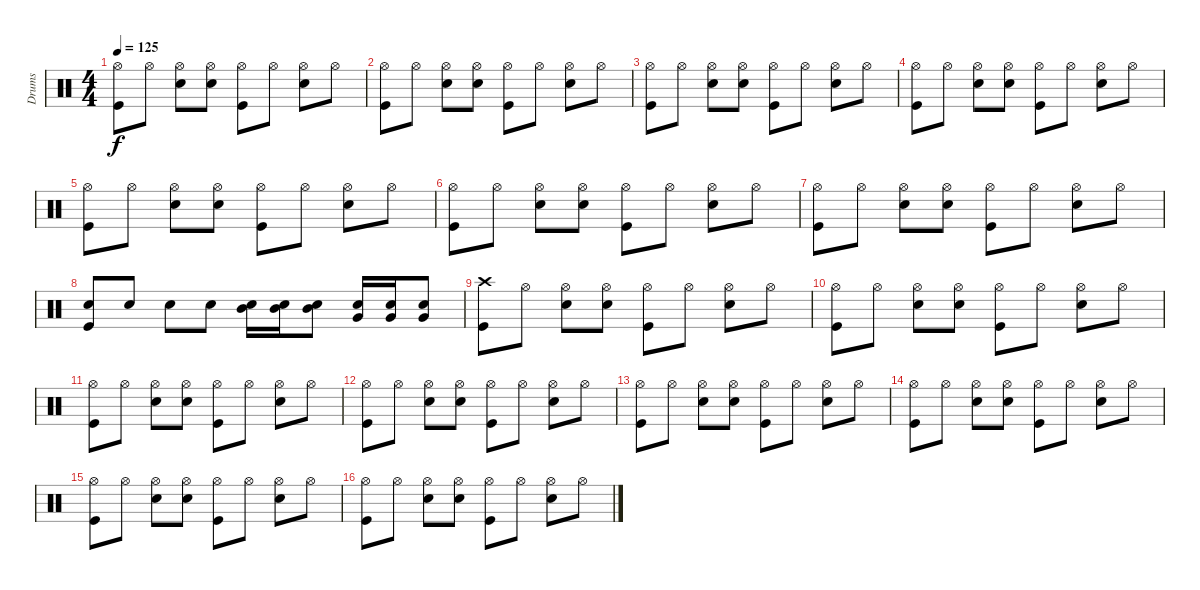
\track ("Drums" "Drums") {instrument percussion}
\staff {score}
\articulation defaults
\ts (4 4)
\tempo 125
\clef neutral
\ks c
("Hi-Hat (open)" "Kick (hit)").8{dy f} "Hi-Hat (open)".8 ("Hi-Hat (open)" "Snare (hit) 2").8 ("Hi-Hat (open)" "Snare (hit) 2").8 ("Hi-Hat (open)" "Kick (hit)").8 "Hi-Hat (open)".8 ("Hi-Hat (open)" "Snare (hit) 2").8 "Hi-Hat (open)".8 |
("Kick (hit)" "Hi-Hat (open)").8 "Hi-Hat (open)".8 ("Hi-Hat (open)" "Snare (hit) 2").8 ("Hi-Hat (open)" "Snare (hit) 2").8 ("Hi-Hat (open)" "Kick (hit)").8 "Hi-Hat (open)".8 ("Hi-Hat (open)" "Snare (hit) 2").8 "Hi-Hat (open)".8 |
("Kick (hit)" "Hi-Hat (open)").8 "Hi-Hat (open)".8 ("Hi-Hat (open)" "Snare (hit) 2").8 ("Hi-Hat (open)" "Snare (hit) 2").8 ("Hi-Hat (open)" "Kick (hit)").8 "Hi-Hat (open)".8 ("Hi-Hat (open)" "Snare (hit) 2").8 "Hi-Hat (open)".8 |
("Kick (hit)" "Hi-Hat (open)").8 "Hi-Hat (open)".8 ("Hi-Hat (open)" "Snare (hit) 2").8 ("Hi-Hat (open)" "Snare (hit) 2").8 ("Hi-Hat (open)" "Kick (hit)").8 "Hi-Hat (open)".8 ("Hi-Hat (open)" "Snare (hit) 2").8 "Hi-Hat (open)".8 |
("Kick (hit)" "Hi-Hat (open)").8 "Hi-Hat (open)".8 ("Hi-Hat (open)" "Snare (hit) 2").8 ("Hi-Hat (open)" "Snare (hit) 2").8 ("Hi-Hat (open)" "Kick (hit)").8 "Hi-Hat (open)".8 ("Hi-Hat (open)" "Snare (hit) 2").8 "Hi-Hat (open)".8 |
("Kick (hit)" "Hi-Hat (open)").8 "Hi-Hat (open)".8 ("Hi-Hat (open)" "Snare (hit) 2").8 ("Hi-Hat (open)" "Snare (hit) 2").8 ("Hi-Hat (open)" "Kick (hit)").8 "Hi-Hat (open)".8 ("Hi-Hat (open)" "Snare (hit) 2").8 "Hi-Hat (open)".8 |
("Kick (hit)" "Hi-Hat (open)").8 "Hi-Hat (open)".8 ("Hi-Hat (open)" "Snare (hit) 2").8 ("Hi-Hat (open)" "Snare (hit) 2").8 ("Hi-Hat (open)" "Kick (hit)").8 "Hi-Hat (open)".8 ("Hi-Hat (open)" "Snare (hit) 2").8 "Hi-Hat (open)".8 |
("Snare (hit) 2" "Kick (hit)").8 "Snare (hit) 2".8 "Snare (hit) 2".8 "Snare (hit) 2".8 ("Snare (hit) 2" "Mid Tom (hit)").16 ("Snare (hit) 2" "Mid Tom (hit)").16 ("Snare (hit) 2" "Mid Tom (hit)").8 ("Very Low Tom (hit)" "Snare (hit) 2").16 ("Very Low Tom (hit)" "Snare (hit) 2").16 ("Snare (hit) 2" "Very Low Tom (hit)").8 |
("Crash high (hit)" "Kick (hit)").8 "Hi-Hat (open)".8 ("Hi-Hat (open)" "Snare (hit) 2").8 ("Hi-Hat (open)" "Snare (hit) 2").8 ("Hi-Hat (open)" "Kick (hit)").8 "Hi-Hat (open)".8 ("Hi-Hat (open)" "Snare (hit) 2").8 "Hi-Hat (open)".8 |
("Kick (hit)" "Hi-Hat (open)").8 "Hi-Hat (open)".8 ("Hi-Hat (open)" "Snare (hit) 2").8 ("Hi-Hat (open)" "Snare (hit) 2").8 ("Hi-Hat (open)" "Kick (hit)").8 "Hi-Hat (open)".8 ("Hi-Hat (open)" "Snare (hit) 2").8 "Hi-Hat (open)".8 |
("Hi-Hat (open)" "Kick (hit)").8 "Hi-Hat (open)".8 ("Hi-Hat (open)" "Snare (hit) 2").8 ("Hi-Hat (open)" "Snare (hit) 2").8 ("Hi-Hat (open)" "Kick (hit)").8 "Hi-Hat (open)".8 ("Hi-Hat (open)" "Snare (hit) 2").8 "Hi-Hat (open)".8 |
("Hi-Hat (open)" "Kick (hit)").8 "Hi-Hat (open)".8 ("Hi-Hat (open)" "Snare (hit) 2").8 ("Hi-Hat (open)" "Snare (hit) 2").8 ("Hi-Hat (open)" "Kick (hit)").8 "Hi-Hat (open)".8 ("Hi-Hat (open)" "Snare (hit) 2").8 "Hi-Hat (open)".8 |
("Hi-Hat (open)" "Kick (hit)").8 "Hi-Hat (open)".8 ("Hi-Hat (open)" "Snare (hit) 2").8 ("Hi-Hat (open)" "Snare (hit) 2").8 ("Hi-Hat (open)" "Kick (hit)").8 "Hi-Hat (open)".8 ("Hi-Hat (open)" "Snare (hit) 2").8 "Hi-Hat (open)".8 |
("Hi-Hat (open)" "Kick (hit)").8 "Hi-Hat (open)".8 ("Hi-Hat (open)" "Snare (hit) 2").8 ("Hi-Hat (open)" "Snare (hit) 2").8 ("Hi-Hat (open)" "Kick (hit)").8 "Hi-Hat (open)".8 ("Hi-Hat (open)" "Snare (hit) 2").8 "Hi-Hat (open)".8 |
("Hi-Hat (open)" "Kick (hit)").8 "Hi-Hat (open)".8 ("Hi-Hat (open)" "Snare (hit) 2").8 ("Hi-Hat (open)" "Snare (hit) 2").8 ("Hi-Hat (open)" "Kick (hit)").8 "Hi-Hat (open)".8 ("Hi-Hat (open)" "Snare (hit) 2").8 "Hi-Hat (open)".8 |
("Hi-Hat (open)" "Kick (hit)").8 "Hi-Hat (open)".8 ("Hi-Hat (open)" "Snare (hit) 2").8 ("Hi-Hat (open)" "Snare (hit) 2").8 ("Hi-Hat (open)" "Kick (hit)").8 "Hi-Hat (open)".8 ("Hi-Hat (open)" "Snare (hit) 2").8 "Hi-Hat (open)".8
